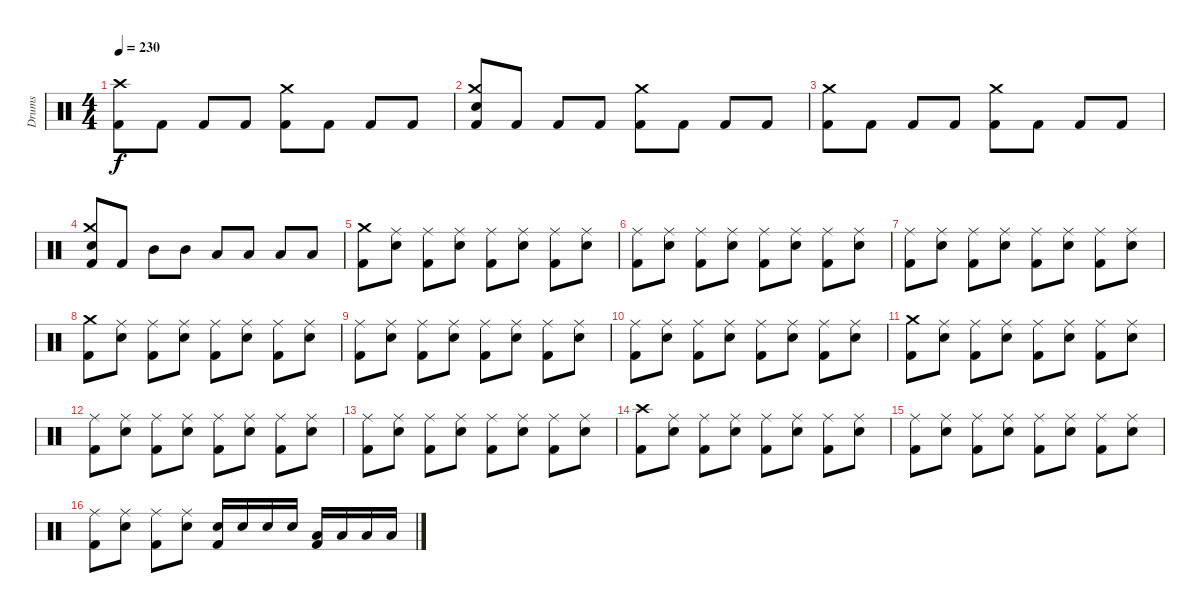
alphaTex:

\track ("Drums" "Drums") {instrument percussion}
\staff {score}
\articulation defaults
\ts (4 4)
\tempo 230
\clef neutral
\ks c
("Crash high (hit)" "Kick (hit) 2").8{dy f} "Kick (hit) 2".8 "Kick (hit) 2".8 "Kick (hit) 2".8 ("Crash medium (hit)" "Kick (hit) 2").8 "Kick (hit) 2".8 "Kick (hit) 2".8 "Kick (hit) 2".8 |
("Crash medium (hit)" "Electric Snare (hit)" "Kick (hit) 2").8 "Kick (hit) 2".8 "Kick (hit) 2".8 "Kick (hit) 2".8 ("Crash medium (hit)" "Kick (hit) 2").8 "Kick (hit) 2".8 "Kick (hit) 2".8 "Kick (hit) 2".8 |
("Crash medium (hit)" "Kick (hit) 2").8 "Kick (hit) 2".8 "Kick (hit) 2".8 "Kick (hit) 2".8 ("Crash medium (hit)" "Kick (hit) 2").8 "Kick (hit) 2".8 "Kick (hit) 2".8 "Kick (hit) 2".8 |
("Crash medium (hit)" "Electric Snare (hit)" "Kick (hit) 2").8 "Kick (hit) 2".8 "Mid Tom (hit)".8 "Mid Tom (hit)".8 "Low Tom (hit)".8 "Low Tom (hit)".8 "Low Floor Tom (hit)".8 "Low Floor Tom (hit)".8 |
("Crash medium (hit)" "Kick (hit) 2").8 ("Ride (middle)" "Electric Snare (hit)").8 ("Ride (middle)" "Kick (hit) 2").8 ("Ride (middle)" "Electric Snare (hit)").8 ("Ride (middle)" "Kick (hit) 2").8 ("Ride (middle)" "Electric Snare (hit)").8 ("Ride (middle)" "Kick (hit) 2").8 ("Ride (middle)" "Electric Snare (hit)").8 |
("Ride (middle)" "Kick (hit) 2").8 ("Ride (middle)" "Electric Snare (hit)").8 ("Ride (middle)" "Kick (hit) 2").8 ("Ride (middle)" "Electric Snare (hit)").8 ("Ride (middle)" "Kick (hit) 2").8 ("Ride (middle)" "Electric Snare (hit)").8 ("Ride (middle)" "Kick (hit) 2").8 ("Ride (middle)" "Electric Snare (hit)").8 |
("Ride (middle)" "Kick (hit) 2").8 ("Ride (middle)" "Electric Snare (hit)").8 ("Ride (middle)" "Kick (hit) 2").8 ("Ride (middle)" "Electric Snare (hit)").8 ("Ride (middle)" "Kick (hit) 2").8 ("Ride (middle)" "Electric Snare (hit)").8 ("Ride (middle)" "Kick (hit) 2").8 ("Ride (middle)" "Electric Snare (hit)").8 |
("Crash medium (hit)" "Kick (hit) 2").8 ("Ride (middle)" "Electric Snare (hit)").8 ("Ride (middle)" "Kick (hit) 2").8 ("Ride (middle)" "Electric Snare (hit)").8 ("Ride (middle)" "Kick (hit) 2").8 ("Ride (middle)" "Electric Snare (hit)").8 ("Ride (middle)" "Kick (hit) 2").8 ("Ride (middle)" "Electric Snare (hit)").8 |
("Ride (middle)" "Kick (hit) 2").8 ("Ride (middle)" "Electric Snare (hit)").8 ("Ride (middle)" "Kick (hit) 2").8 ("Ride (middle)" "Electric Snare (hit)").8 ("Ride (middle)" "Kick (hit) 2").8 ("Ride (middle)" "Electric Snare (hit)").8 ("Ride (middle)" "Kick (hit) 2").8 ("Ride (middle)" "Electric Snare (hit)").8 |
("Ride (middle)" "Kick (hit) 2").8 ("Ride (middle)" "Electric Snare (hit)").8 ("Ride (middle)" "Kick (hit) 2").8 ("Ride (middle)" "Electric Snare (hit)").8 ("Ride (middle)" "Kick (hit) 2").8 ("Ride (middle)" "Electric Snare (hit)").8 ("Ride (middle)" "Kick (hit) 2").8 ("Ride (middle)" "Electric Snare (hit)").8 |
("Crash medium (hit)" "Kick (hit) 2").8 ("Ride (middle)" "Electric Snare (hit)").8 ("Ride (middle)" "Kick (hit) 2").8 ("Ride (middle)" "Electric Snare (hit)").8 ("Ride (middle)" "Kick (hit) 2").8 ("Ride (middle)" "Electric Snare (hit)").8 ("Ride (middle)" "Kick (hit) 2").8 ("Ride (middle)" "Electric Snare (hit)").8 |
("Ride (middle)" "Kick (hit) 2").8 ("Ride (middle)" "Electric Snare (hit)").8 ("Ride (middle)" "Kick (hit) 2").8 ("Ride (middle)" "Electric Snare (hit)").8 ("Ride (middle)" "Kick (hit) 2").8 ("Ride (middle)" "Electric Snare (hit)").8 ("Ride (middle)" "Kick (hit) 2").8 ("Ride (middle)" "Electric Snare (hit)").8 |
("Ride (middle)" "Kick (hit) 2").8 ("Ride (middle)" "Electric Snare (hit)").8 ("Ride (middle)" "Kick (hit) 2").8 ("Ride (middle)" "Electric Snare (hit)").8 ("Ride (middle)" "Kick (hit) 2").8 ("Ride (middle)" "Electric Snare (hit)").8 ("Ride (middle)" "Kick (hit) 2").8 ("Ride (middle)" "Electric Snare (hit)").8 |
("Crash high (hit)" "Kick (hit) 2").8 ("Ride (middle)" "Electric Snare (hit)").8 ("Ride (middle)" "Kick (hit) 2").8 ("Ride (middle)" "Electric Snare (hit)").8 ("Ride (middle)" "Kick (hit) 2").8 ("Ride (middle)" "Electric Snare (hit)").8 ("Ride (middle)" "Kick (hit) 2").8 ("Ride (middle)" "Electric Snare (hit)").8 |
("Ride (middle)" "Kick (hit) 2").8 ("Ride (middle)" "Electric Snare (hit)").8 ("Ride (middle)" "Kick (hit) 2").8 ("Ride (middle)" "Electric Snare (hit)").8 ("Ride (middle)" "Kick (hit) 2").8 ("Ride (middle)" "Electric Snare (hit)").8 ("Ride (middle)" "Kick (hit) 2").8 ("Ride (middle)" "Electric Snare (hit)").8 |
("Ride (middle)" "Kick (hit) 2").8 ("Ride (middle)" "Electric Snare (hit)").8 ("Ride (middle)" "Kick (hit) 2").8 ("Ride (middle)" "Electric Snare (hit)").8 ("Electric Snare (hit)" "Kick (hit) 2").16 "Electric Snare (hit)".16 "Electric Snare (hit)".16 "Electric Snare (hit)".16 ("Low Tom (hit)" "Kick (hit) 2").16 "Low Tom (hit)".16 "Low Tom (hit)".16 "Low Tom (hit)".16
